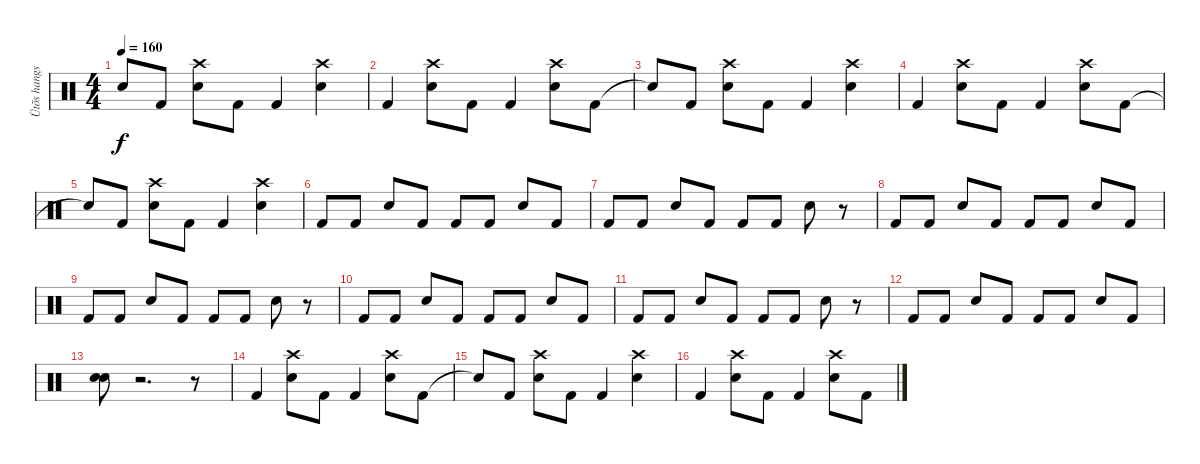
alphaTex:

\track ("Ütõs hangszer" "Ütõs hangs") {instrument percussion}
\staff {score}
\articulation defaults
\ts (4 4)
\tempo 160
\clef neutral
\ks c "Snare (hit)"{t}.8{dy f} "Kick (hit) 2".8
("Crash high (hit)" "Electric Snare (hit)").8 "Kick (hit) 2".8 "Kick (hit) 2".4 ("Crash high (hit)" "Electric Snare (hit)").4 |
"Kick (hit) 2".4 ("Crash high (hit)" "Electric Snare (hit)").8 "Kick (hit) 2".8 "Kick (hit) 2".4 ("Crash high (hit)" "Electric Snare (hit)").8 "Kick (hit) 2".8 |
"Snare (hit)"{t}.8 "Kick (hit) 2".8 ("Crash high (hit)" "Electric Snare (hit)").8 "Kick (hit) 2".8 "Kick (hit) 2".4 ("Crash high (hit)" "Electric Snare (hit)").4 |
"Kick (hit) 2".4 ("Crash high (hit)" "Electric Snare (hit)").8 "Kick (hit) 2".8 "Kick (hit) 2".4 ("Crash high (hit)" "Electric Snare (hit)").8 "Kick (hit) 2".8 |
"Snare (hit)"{t}.8 "Kick (hit) 2".8 ("Crash high (hit)" "Electric Snare (hit)").8 "Kick (hit) 2".8 "Kick (hit) 2".4 ("Crash high (hit)" "Electric Snare (hit)").4 |
"Kick (hit) 2".8 "Kick (hit) 2".8 "Electric Snare (hit)".8 "Kick (hit) 2".8 "Kick (hit) 2".8 "Kick (hit) 2".8 "Electric Snare (hit)".8 "Kick (hit) 2".8 |
"Kick (hit) 2".8 "Kick (hit) 2".8 "Electric Snare (hit)".8 "Kick (hit) 2".8 "Kick (hit) 2".8 "Kick (hit) 2".8 "Electric Snare (hit)".8 r.8 |
"Kick (hit) 2".8 "Kick (hit) 2".8 "Electric Snare (hit)".8 "Kick (hit) 2".8 "Kick (hit) 2".8 "Kick (hit) 2".8 "Electric Snare (hit)".8 "Kick (hit) 2".8 |
"Kick (hit) 2".8 "Kick (hit) 2".8 "Electric Snare (hit)".8 "Kick (hit) 2".8 "Kick (hit) 2".8 "Kick (hit) 2".8 "Electric Snare (hit)".8 r.8 |
"Kick (hit) 2".8 "Kick (hit) 2".8 "Electric Snare (hit)".8 "Kick (hit) 2".8 "Kick (hit) 2".8 "Kick (hit) 2".8 "Electric Snare (hit)".8 "Kick (hit) 2".8 |
"Kick (hit) 2".8 "Kick (hit) 2".8 "Electric Snare (hit)".8 "Kick (hit) 2".8 "Kick (hit) 2".8 "Kick (hit) 2".8 "Electric Snare (hit)".8 r.8 |
"Kick (hit) 2".8 "Kick (hit) 2".8 "Electric Snare (hit)".8 "Kick (hit) 2".8 "Kick (hit) 2".8 "Kick (hit) 2".8 "Electric Snare (hit)".8 "Kick (hit) 2".8 |
("Electric Snare (hit)" "Electric Snare (hit)").8 r.2{d} r.8 |
"Kick (hit) 2".4 ("Crash high (hit)" "Electric Snare (hit)").8 "Kick (hit) 2".8 "Kick (hit) 2".4 ("Crash high (hit)" "Electric Snare (hit)").8 "Kick (hit) 2".8 |
"Snare (hit)"{t}.8 "Kick (hit) 2".8 ("Crash high (hit)" "Electric Snare (hit)").8 "Kick (hit) 2".8 "Kick (hit) 2".4 ("Crash high (hit)" "Electric Snare (hit)").4 |
"Kick (hit) 2".4 ("Crash high (hit)" "Electric Snare (hit)").8 "Kick (hit) 2".8 "Kick (hit) 2".4 ("Crash high (hit)" "Electric Snare (hit)").8 "Kick (hit) 2".8
